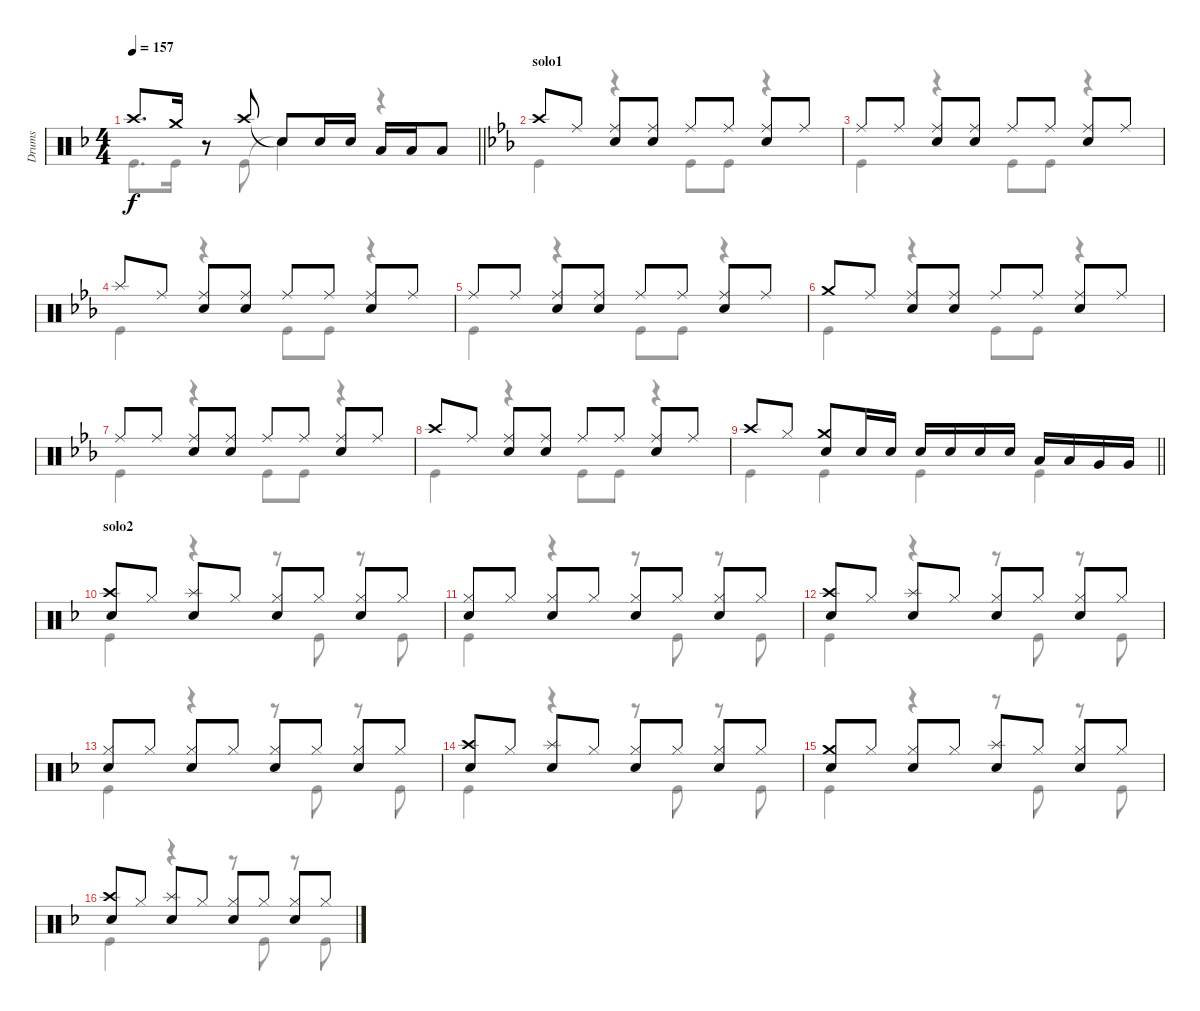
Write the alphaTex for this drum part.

\track ("Drums" "Drums") {instrument percussion}
\staff {score}
\articulation defaults
\voice
\ts (4 4)
\tempo 157
\clef neutral
\barLineRight lightlight
\ks f "Crash high (hit)".8{d dy f} "Crash medium (hit)".16
r.8 "Crash high (hit)".8 "Snare (hit)"{t}.8 "Snare (hit) 2".16 "Snare (hit) 2".16 "Low Tom (hit)".16 "Low Tom (hit)".16 "Low Tom (hit)".8 |
\section ("" "solo1")
\ks eb "Crash high (hit)".8 "Ride (middle)".8
("Ride (middle)" "Snare (hit) 2").8 ("Ride (middle)" "Snare (hit) 2").8 "Ride (middle)".8 "Ride (middle)".8 ("Ride (middle)" "Snare (hit) 2").8 "Ride (middle)".8 |
"Ride (middle)".8 "Ride (middle)".8 ("Ride (middle)" "Snare (hit) 2").8 ("Ride (middle)" "Snare (hit) 2").8 "Ride (middle)".8 "Ride (middle)".8 ("Ride (middle)" "Snare (hit) 2").8 "Ride (middle)".8 |
"Splash (hit)".8 "Ride (middle)".8 ("Ride (middle)" "Snare (hit) 2").8 ("Ride (middle)" "Snare (hit) 2").8 "Ride (middle)".8 "Ride (middle)".8 ("Ride (middle)" "Snare (hit) 2").8 "Ride (middle)".8 |
"Ride (middle)".8 "Ride (middle)".8 ("Ride (middle)" "Snare (hit) 2").8 ("Ride (middle)" "Snare (hit) 2").8 "Ride (middle)".8 "Ride (middle)".8 ("Ride (middle)" "Snare (hit) 2").8 "Ride (middle)".8 |
"Crash medium (hit)".8 "Ride (middle)".8 ("Ride (middle)" "Snare (hit) 2").8 ("Ride (middle)" "Snare (hit) 2").8 "Ride (middle)".8 "Ride (middle)".8 ("Ride (middle)" "Snare (hit) 2").8 "Ride (middle)".8 |
"Ride (middle)".8 "Ride (middle)".8 ("Ride (middle)" "Snare (hit) 2").8 ("Ride (middle)" "Snare (hit) 2").8 "Ride (middle)".8 "Ride (middle)".8 ("Ride (middle)" "Snare (hit) 2").8 "Ride (middle)".8 |
"Crash high (hit)".8 "Ride (middle)".8 ("Ride (middle)" "Snare (hit) 2").8 ("Ride (middle)" "Snare (hit) 2").8 "Ride (middle)".8 "Ride (middle)".8 ("Ride (middle)" "Snare (hit) 2").8 "Ride (middle)".8 |
\barLineRight lightlight "Crash high (hit)".8 "Hi-Hat (closed)".8
("Crash medium (hit)" "Snare (hit) 2").8 "Snare (hit) 2".16 "Snare (hit) 2".16 "Snare (hit) 2".16 "Snare (hit) 2".16 "Snare (hit) 2".16 "Snare (hit) 2".16 "Low Tom (hit)".16 "Low Tom (hit)".16 "Very Low Tom (hit)".16 "Very Low Tom (hit)".16 |
\section ("" "solo2")
\ks f
("Crash high (hit)" "Snare (hit) 2").8 "Hi-Hat (closed)".8 ("Splash (hit)" "Snare (hit) 2").8 "Hi-Hat (closed)".8 ("Hi-Hat (closed)" "Snare (hit) 2").8 "Hi-Hat (closed)".8 ("Hi-Hat (closed)" "Snare (hit) 2").8 "Hi-Hat (closed)".8 |
("Hi-Hat (closed)" "Snare (hit) 2").8 "Hi-Hat (closed)".8 ("Hi-Hat (closed)" "Snare (hit) 2").8 "Hi-Hat (closed)".8 ("Hi-Hat (closed)" "Snare (hit) 2").8 "Hi-Hat (closed)".8 ("Hi-Hat (closed)" "Snare (hit) 2").8 "Hi-Hat (closed)".8 |
("Crash high (hit)" "Snare (hit) 2").8 "Hi-Hat (closed)".8 ("Splash (hit)" "Snare (hit) 2").8 "Hi-Hat (closed)".8 ("Hi-Hat (closed)" "Snare (hit) 2").8 "Hi-Hat (closed)".8 ("Hi-Hat (closed)" "Snare (hit) 2").8 "Hi-Hat (closed)".8 |
("Hi-Hat (closed)" "Snare (hit) 2").8 "Hi-Hat (closed)".8 ("Hi-Hat (closed)" "Snare (hit) 2").8 "Hi-Hat (closed)".8 ("Hi-Hat (closed)" "Snare (hit) 2").8 "Hi-Hat (closed)".8 ("Hi-Hat (closed)" "Snare (hit) 2").8 "Hi-Hat (closed)".8 |
("Crash high (hit)" "Snare (hit) 2").8 "Hi-Hat (closed)".8 ("Splash (hit)" "Snare (hit) 2").8 "Hi-Hat (closed)".8 ("Hi-Hat (closed)" "Snare (hit) 2").8 "Hi-Hat (closed)".8 ("Hi-Hat (closed)" "Snare (hit) 2").8 "Hi-Hat (closed)".8 |
("Crash medium (hit)" "Snare (hit) 2").8 "Hi-Hat (closed)".8 ("Hi-Hat (closed)" "Snare (hit) 2").8 "Hi-Hat (closed)".8 ("Splash (hit)" "Snare (hit) 2").8 "Hi-Hat (closed)".8 ("Hi-Hat (closed)" "Snare (hit) 2").8 "Hi-Hat (closed)".8 |
("Crash high (hit)" "Snare (hit) 2").8 "Hi-Hat (closed)".8 ("Splash (hit)" "Snare (hit) 2").8 "Hi-Hat (closed)".8 ("Hi-Hat (closed)" "Snare (hit) 2").8 "Hi-Hat (closed)".8 ("Hi-Hat (closed)" "Snare (hit) 2").8 "Hi-Hat (closed)".8
\voice
\clef neutral
\ottava regular
\simile none
\barLineRight lightlight
\ks f "Kick (hit)".8{d dy f} "Kick (hit)".16
r.8 "Kick (hit)".8 "Snare (hit)"{t}.4 r.4 |
\ks eb "Kick (hit)".4
r.4 "Kick (hit)".8 "Kick (hit)".8 r.4 |
"Kick (hit)".4 r.4 "Kick (hit)".8 "Kick (hit)".8 r.4 |
"Kick (hit)".4 r.4 "Kick (hit)".8 "Kick (hit)".8 r.4 |
"Kick (hit)".4 r.4 "Kick (hit)".8 "Kick (hit)".8 r.4 |
"Kick (hit)".4 r.4 "Kick (hit)".8 "Kick (hit)".8 r.4 |
"Kick (hit)".4 r.4 "Kick (hit)".8 "Kick (hit)".8 r.4 |
"Kick (hit)".4 r.4 "Kick (hit)".8 "Kick (hit)".8 r.4 |
\barLineRight lightlight "Kick (hit)".4 "Kick (hit)".4 "Kick (hit)".4 "Kick (hit)".4
|
\ks f "Kick (hit)".4
r.4 r.8 "Kick (hit)".8 r.8 "Kick (hit)".8 |
"Kick (hit)".4 r.4 r.8 "Kick (hit)".8 r.8 "Kick (hit)".8 |
"Kick (hit)".4 r.4 r.8 "Kick (hit)".8 r.8 "Kick (hit)".8 |
"Kick (hit)".4 r.4 r.8 "Kick (hit)".8 r.8 "Kick (hit)".8 |
"Kick (hit)".4 r.4 r.8 "Kick (hit)".8 r.8 "Kick (hit)".8 |
"Kick (hit)".4 r.4 r.8 "Kick (hit)".8 r.8 "Kick (hit)".8 |
"Kick (hit)".4 r.4 r.8 "Kick (hit)".8 r.8 "Kick (hit)".8
